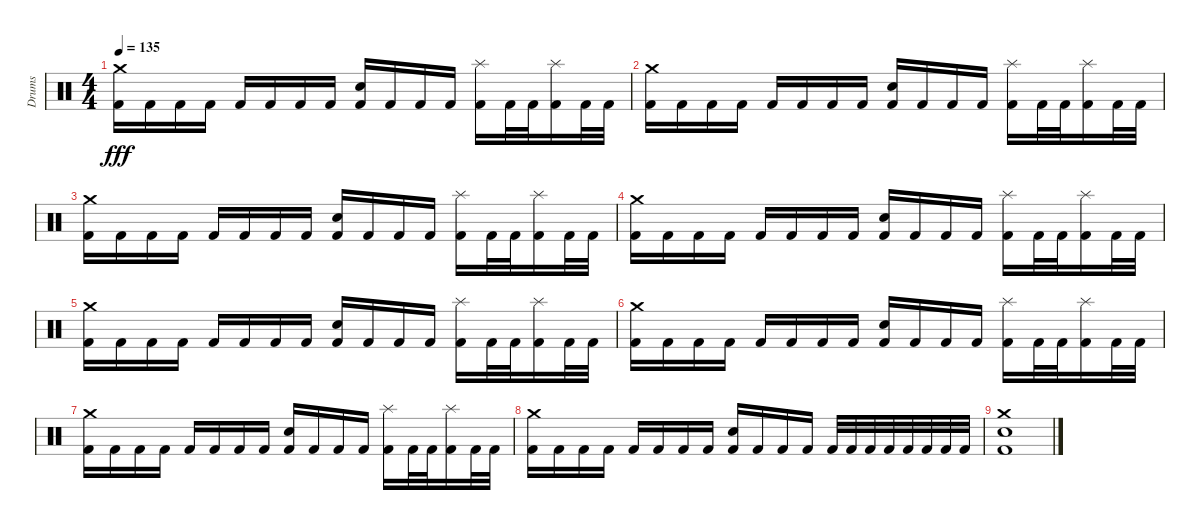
\track ("Drums" "Drums") {instrument percussion}
\staff {score}
\articulation defaults
\ts (4 4)
\tempo 135
\clef neutral
\ks c
("Crash medium (hit)" "Kick (hit) 2").16{dy fff} "Kick (hit) 2".16 "Kick (hit) 2".16 "Kick (hit) 2".16 "Kick (hit) 2".16 "Kick (hit) 2".16 "Kick (hit) 2".16 "Kick (hit) 2".16 ("Electric Snare (hit)" "Kick (hit) 2").16 "Kick (hit) 2".16 "Kick (hit) 2".16 "Kick (hit) 2".16 ("Splash (hit)" "Kick (hit) 2").16 "Kick (hit) 2".32 "Kick (hit) 2".32 ("Splash (hit)" "Kick (hit) 2").16 "Kick (hit) 2".32 "Kick (hit) 2".32 |
("Crash medium (hit)" "Kick (hit) 2").16 "Kick (hit) 2".16 "Kick (hit) 2".16 "Kick (hit) 2".16 "Kick (hit) 2".16 "Kick (hit) 2".16 "Kick (hit) 2".16 "Kick (hit) 2".16 ("Electric Snare (hit)" "Kick (hit) 2").16 "Kick (hit) 2".16 "Kick (hit) 2".16 "Kick (hit) 2".16 ("Splash (hit)" "Kick (hit) 2").16 "Kick (hit) 2".32 "Kick (hit) 2".32 ("Splash (hit)" "Kick (hit) 2").16 "Kick (hit) 2".32 "Kick (hit) 2".32 |
("Crash medium (hit)" "Kick (hit) 2").16 "Kick (hit) 2".16 "Kick (hit) 2".16 "Kick (hit) 2".16 "Kick (hit) 2".16 "Kick (hit) 2".16 "Kick (hit) 2".16 "Kick (hit) 2".16 ("Electric Snare (hit)" "Kick (hit) 2").16 "Kick (hit) 2".16 "Kick (hit) 2".16 "Kick (hit) 2".16 ("Splash (hit)" "Kick (hit) 2").16 "Kick (hit) 2".32 "Kick (hit) 2".32 ("Splash (hit)" "Kick (hit) 2").16 "Kick (hit) 2".32 "Kick (hit) 2".32 |
("Crash medium (hit)" "Kick (hit) 2").16 "Kick (hit) 2".16 "Kick (hit) 2".16 "Kick (hit) 2".16 "Kick (hit) 2".16 "Kick (hit) 2".16 "Kick (hit) 2".16 "Kick (hit) 2".16 ("Electric Snare (hit)" "Kick (hit) 2").16 "Kick (hit) 2".16 "Kick (hit) 2".16 "Kick (hit) 2".16 ("Splash (hit)" "Kick (hit) 2").16 "Kick (hit) 2".32 "Kick (hit) 2".32 ("Splash (hit)" "Kick (hit) 2").16 "Kick (hit) 2".32 "Kick (hit) 2".32 |
("Crash medium (hit)" "Kick (hit) 2").16 "Kick (hit) 2".16 "Kick (hit) 2".16 "Kick (hit) 2".16 "Kick (hit) 2".16 "Kick (hit) 2".16 "Kick (hit) 2".16 "Kick (hit) 2".16 ("Electric Snare (hit)" "Kick (hit) 2").16 "Kick (hit) 2".16 "Kick (hit) 2".16 "Kick (hit) 2".16 ("Splash (hit)" "Kick (hit) 2").16 "Kick (hit) 2".32 "Kick (hit) 2".32 ("Splash (hit)" "Kick (hit) 2").16 "Kick (hit) 2".32 "Kick (hit) 2".32 |
("Crash medium (hit)" "Kick (hit) 2").16 "Kick (hit) 2".16 "Kick (hit) 2".16 "Kick (hit) 2".16 "Kick (hit) 2".16 "Kick (hit) 2".16 "Kick (hit) 2".16 "Kick (hit) 2".16 ("Electric Snare (hit)" "Kick (hit) 2").16 "Kick (hit) 2".16 "Kick (hit) 2".16 "Kick (hit) 2".16 ("Splash (hit)" "Kick (hit) 2").16 "Kick (hit) 2".32 "Kick (hit) 2".32 ("Splash (hit)" "Kick (hit) 2").16 "Kick (hit) 2".32 "Kick (hit) 2".32 |
("Crash medium (hit)" "Kick (hit) 2").16 "Kick (hit) 2".16 "Kick (hit) 2".16 "Kick (hit) 2".16 "Kick (hit) 2".16 "Kick (hit) 2".16 "Kick (hit) 2".16 "Kick (hit) 2".16 ("Electric Snare (hit)" "Kick (hit) 2").16 "Kick (hit) 2".16 "Kick (hit) 2".16 "Kick (hit) 2".16 ("Splash (hit)" "Kick (hit) 2").16 "Kick (hit) 2".32 "Kick (hit) 2".32 ("Splash (hit)" "Kick (hit) 2").16 "Kick (hit) 2".32 "Kick (hit) 2".32 |
("Crash medium (hit)" "Kick (hit) 2").16 "Kick (hit) 2".16 "Kick (hit) 2".16 "Kick (hit) 2".16 "Kick (hit) 2".16 "Kick (hit) 2".16 "Kick (hit) 2".16 "Kick (hit) 2".16 ("Electric Snare (hit)" "Kick (hit) 2").16 "Kick (hit) 2".16 "Kick (hit) 2".16 "Kick (hit) 2".16 "Kick (hit) 2".32 "Kick (hit) 2".32 "Kick (hit) 2".32 "Kick (hit) 2".32 "Kick (hit) 2".32 "Kick (hit) 2".32 "Kick (hit) 2".32 "Kick (hit) 2".32 |
("Crash medium (hit)" "Electric Snare (hit)" "Kick (hit) 2").1
